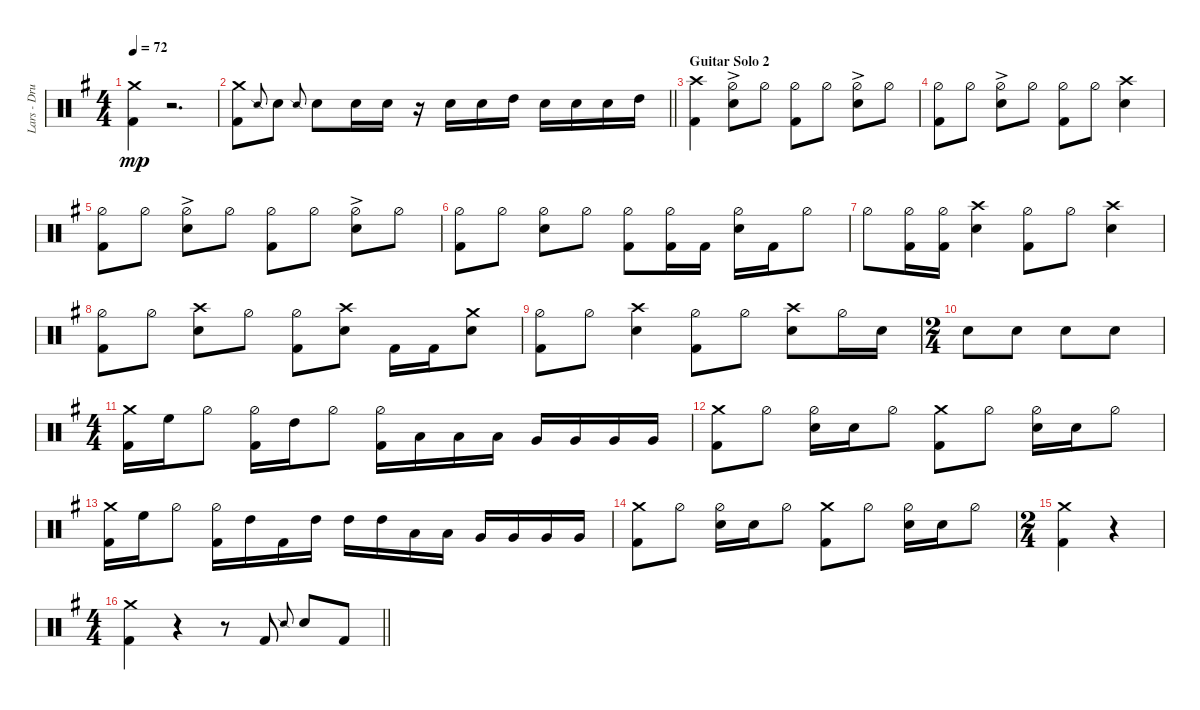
\track ("Lars - Drums" "Lars - Dru") {instrument percussion}
\staff {score}
\articulation defaults
\ts (4 4)
\tempo 72
\clef neutral
\ks eminor
("Crash medium (hit)" "Kick (hit) 2").4{dy mp} r.2{d} |
\barLineRight lightlight
("Crash medium (hit)" "Kick (hit) 2").8 "Snare (side stick) 2".8{gr onbeat} "Snare (hit) 2".8 "Snare (side stick) 2".8{gr onbeat} "Snare (hit) 2".8 "Snare (hit) 2".16 "Snare (hit) 2".16 r.16 "Snare (hit) 2".16 "Snare (hit) 2".16 "High Tom (hit)".16 "Snare (hit) 2".16 "Snare (hit) 2".16 "Snare (hit) 2".16 "High Tom (hit)".16 |
\section ("" "Guitar Solo 2")
("Crash high (hit)" "Kick (hit) 2").4 ("Hi-Hat (half)"{ac} "Snare (hit) 2").8 "Hi-Hat (half)".8 ("Hi-Hat (half)" "Kick (hit) 2").8 "Hi-Hat (half)".8 ("Hi-Hat (half)"{ac} "Snare (hit) 2").8 "Hi-Hat (half)".8 |
("Hi-Hat (half)" "Kick (hit) 2").8 "Hi-Hat (half)".8 ("Hi-Hat (half)"{ac} "Snare (hit) 2").8 "Hi-Hat (half)".8 ("Hi-Hat (half)" "Kick (hit) 2").8 "Hi-Hat (half)".8 ("Snare (hit) 2" "Crash high (hit)").4 |
("Hi-Hat (half)" "Kick (hit) 2").8 "Hi-Hat (half)".8 ("Hi-Hat (half)"{ac} "Snare (hit) 2").8 "Hi-Hat (half)".8 ("Hi-Hat (half)" "Kick (hit) 2").8 "Hi-Hat (half)".8 ("Hi-Hat (half)"{ac} "Snare (hit) 2").8 "Hi-Hat (half)".8 |
("Hi-Hat (half)" "Kick (hit) 2").8 "Hi-Hat (half)".8 ("Hi-Hat (half)" "Snare (hit) 2").8 "Hi-Hat (half)".8 ("Hi-Hat (half)" "Kick (hit) 2").8 ("Hi-Hat (half)" "Kick (hit) 2").16 "Kick (hit) 2".16 ("Hi-Hat (half)" "Snare (hit) 2").16 "Kick (hit) 2".16 "Hi-Hat (half)".8 |
"Hi-Hat (half)".8 ("Hi-Hat (half)" "Kick (hit) 2").16 ("Kick (hit) 2" "Hi-Hat (half)").16 ("Snare (hit) 2" "Crash high (hit)").4 ("Hi-Hat (half)" "Kick (hit) 2").8 "Hi-Hat (half)".8 ("Snare (hit) 2" "Crash high (hit)").4 |
("Hi-Hat (half)" "Kick (hit) 2").8 "Hi-Hat (half)".8 ("Snare (hit) 2" "Crash high (hit)").8 "Hi-Hat (half)".8 ("Hi-Hat (half)" "Kick (hit) 2").8 ("Snare (hit) 2" "Crash high (hit)").8 "Kick (hit) 2".16 "Kick (hit) 2".16 ("Snare (hit) 2" "Crash medium (hit)").8 |
("Hi-Hat (half)" "Kick (hit) 2").8 "Hi-Hat (half)".8 ("Snare (hit) 2" "Crash high (hit)").4 ("Hi-Hat (half)" "Kick (hit) 2").8 "Hi-Hat (half)".8 ("Snare (hit) 2" "Crash high (hit)").8 "Hi-Hat (half)".16 "Snare (hit) 2".16 |
\ts (2 4)
"Snare (hit) 2".8 "Snare (hit) 2".8 "Snare (hit) 2".8 "Snare (hit) 2".8 |
\ts (4 4)
("Crash medium (hit)" "Kick (hit) 2").16 "High Floor Tom (hit)".16 "Hi-Hat (half)".8 ("Kick (hit) 2" "Hi-Hat (half)").16 "High Tom (hit)".16 "Hi-Hat (half)".8 ("Hi-Hat (half)" "Kick (hit) 2").16 "Low Tom (hit)".16 "Low Tom (hit)".16 "Low Tom (hit)".16 "Very Low Tom (hit)".16 "Very Low Tom (hit)".16 "Very Low Tom (hit)".16 "Very Low Tom (hit)".16 |
("Kick (hit) 2" "Crash medium (hit)").8 "Hi-Hat (half)".8 ("Hi-Hat (half)" "Snare (hit) 2").16 "Snare (hit) 2".16 "Hi-Hat (half)".8 ("Kick (hit) 2" "Crash medium (hit)").8 "Hi-Hat (half)".8 ("Hi-Hat (half)" "Snare (hit) 2").16 "Snare (hit) 2".16 "Hi-Hat (half)".8 |
("Crash medium (hit)" "Kick (hit) 2").16 "High Floor Tom (hit)".16 "Hi-Hat (half)".8 ("Kick (hit) 2" "Hi-Hat (half)").16 "High Tom (hit)".16 "Kick (hit) 2".16 "High Tom (hit)".16 "High Tom (hit)".16 "High Tom (hit)".16 "Low Tom (hit)".16 "Low Tom (hit)".16 "Very Low Tom (hit)".16 "Very Low Tom (hit)".16 "Very Low Tom (hit)".16 "Very Low Tom (hit)".16 |
("Kick (hit) 2" "Crash medium (hit)").8 "Hi-Hat (half)".8 ("Hi-Hat (half)" "Snare (hit) 2").16 "Snare (hit) 2".16 "Hi-Hat (half)".8 ("Kick (hit) 2" "Crash medium (hit)").8 "Hi-Hat (half)".8 ("Hi-Hat (half)" "Snare (hit) 2").16 "Snare (hit) 2".16 "Hi-Hat (half)".8 |
\ts (2 4)
("Crash medium (hit)" "Kick (hit) 2").4 r.4 |
\ts (4 4)
\barLineRight lightlight
("Crash medium (hit)" "Kick (hit) 2").4 r.4 r.8 "Kick (hit) 2".8 "Snare (side stick) 2".8{gr onbeat} "Snare (hit) 2".8 "Kick (hit) 2".8
